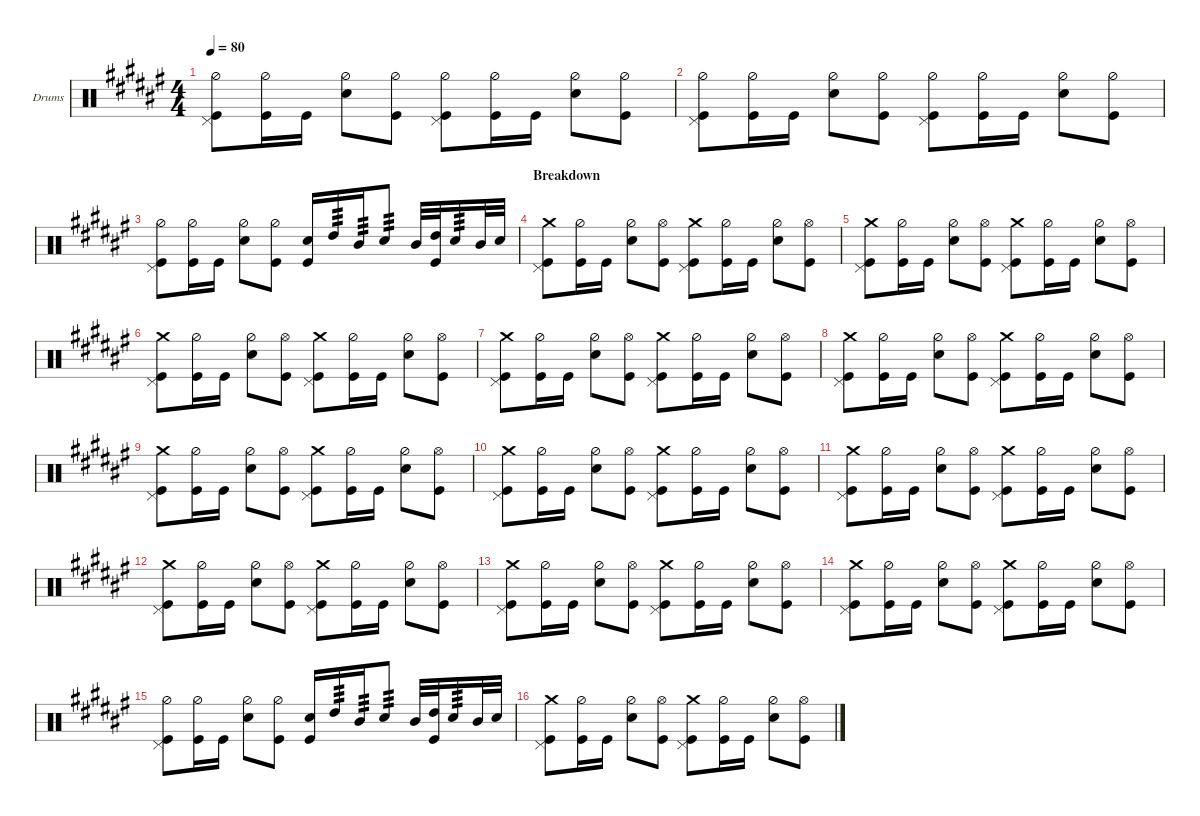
\defaultSystemsLayout 4
\hideDynamics
\bracketExtendMode groupsimilarinstruments
\multiBarRest
\firstSystemTrackNameOrientation horizontal
\otherSystemsTrackNameOrientation horizontal
\track ("Drumkit" "Drums") {multiBarRest instrument percussion}
\staff {score}
\articulation defaults
\ts (4 4)
\tempo 80
\clef neutral
\ks f#
("Kick (hit)" "Pedal Hi-Hat (hit)" "Hi-Hat (half)").8{dy mf} ("Kick (hit)" "Hi-Hat (half)").16 "Kick (hit)".16 ("Snare (hit) 2" "Hi-Hat (half)").8 ("Kick (hit)" "Hi-Hat (half)").8 ("Kick (hit)" "Pedal Hi-Hat (hit)" "Hi-Hat (half)").8 ("Kick (hit)" "Hi-Hat (half)").16 "Kick (hit)".16 ("Snare (hit) 2" "Hi-Hat (half)").8 ("Kick (hit)" "Hi-Hat (half)").8 |
("Kick (hit)" "Pedal Hi-Hat (hit)" "Hi-Hat (half)").8 ("Kick (hit)" "Hi-Hat (half)").16 "Kick (hit)".16 ("Snare (hit) 2" "Hi-Hat (half)").8 ("Kick (hit)" "Hi-Hat (half)").8 ("Kick (hit)" "Pedal Hi-Hat (hit)" "Hi-Hat (half)").8 ("Kick (hit)" "Hi-Hat (half)").16 "Kick (hit)".16 ("Snare (hit) 2" "Hi-Hat (half)").8 ("Kick (hit)" "Hi-Hat (half)").8 |
("Kick (hit)" "Pedal Hi-Hat (hit)" "Hi-Hat (half)").8 ("Kick (hit)" "Hi-Hat (half)").16 "Kick (hit)".16 ("Snare (hit) 2" "Hi-Hat (half)").8 ("Kick (hit)" "Hi-Hat (half)").8 ("Snare (hit) 2" "Kick (hit)").16 "High Tom (hit)".16{tp 3} "Mid Tom (hit)".16{tp 3} "Snare (hit) 2".8{tp 3} "Mid Tom (hit)".32 ("Kick (hit)" "High Tom (hit)").32 "Snare (hit) 2".16{tp 3} "Mid Tom (hit)".32 "Snare (hit) 2".32 |
\section ("" "Breakdown")
("Kick (hit)" "Pedal Hi-Hat (hit)" "Crash medium (hit)").8 ("Kick (hit)" "Hi-Hat (half)").16 "Kick (hit)".16 ("Snare (hit) 2" "Hi-Hat (half)").8 ("Kick (hit)" "Hi-Hat (open)").8 ("Kick (hit)" "Pedal Hi-Hat (hit)" "Crash medium (hit)").8 ("Kick (hit)" "Hi-Hat (half)").16 "Kick (hit)".16 ("Snare (hit) 2" "Hi-Hat (half)").8 ("Kick (hit)" "Hi-Hat (open)").8 |
("Kick (hit)" "Pedal Hi-Hat (hit)" "Crash medium (hit)").8 ("Kick (hit)" "Hi-Hat (half)").16 "Kick (hit)".16 ("Snare (hit) 2" "Hi-Hat (half)").8 ("Kick (hit)" "Hi-Hat (open)").8 ("Kick (hit)" "Pedal Hi-Hat (hit)" "Crash medium (hit)").8 ("Kick (hit)" "Hi-Hat (half)").16 "Kick (hit)".16 ("Snare (hit) 2" "Hi-Hat (half)").8 ("Kick (hit)" "Hi-Hat (open)").8 |
("Kick (hit)" "Pedal Hi-Hat (hit)" "Crash medium (hit)").8 ("Kick (hit)" "Hi-Hat (half)").16 "Kick (hit)".16 ("Snare (hit) 2" "Hi-Hat (half)").8 ("Kick (hit)" "Hi-Hat (open)").8 ("Kick (hit)" "Pedal Hi-Hat (hit)" "Crash medium (hit)").8 ("Kick (hit)" "Hi-Hat (half)").16 "Kick (hit)".16 ("Snare (hit) 2" "Hi-Hat (half)").8 ("Kick (hit)" "Hi-Hat (open)").8 |
("Kick (hit)" "Pedal Hi-Hat (hit)" "Crash medium (hit)").8 ("Kick (hit)" "Hi-Hat (half)").16 "Kick (hit)".16 ("Snare (hit) 2" "Hi-Hat (half)").8 ("Kick (hit)" "Hi-Hat (open)").8 ("Kick (hit)" "Pedal Hi-Hat (hit)" "Crash medium (hit)").8 ("Kick (hit)" "Hi-Hat (half)").16 "Kick (hit)".16 ("Snare (hit) 2" "Hi-Hat (half)").8 ("Kick (hit)" "Hi-Hat (open)").8 |
("Kick (hit)" "Pedal Hi-Hat (hit)" "Crash medium (hit)").8 ("Kick (hit)" "Hi-Hat (half)").16 "Kick (hit)".16 ("Snare (hit) 2" "Hi-Hat (half)").8 ("Kick (hit)" "Hi-Hat (open)").8 ("Kick (hit)" "Pedal Hi-Hat (hit)" "Crash medium (hit)").8 ("Kick (hit)" "Hi-Hat (half)").16 "Kick (hit)".16 ("Snare (hit) 2" "Hi-Hat (half)").8 ("Kick (hit)" "Hi-Hat (open)").8 |
("Kick (hit)" "Pedal Hi-Hat (hit)" "Crash medium (hit)").8 ("Kick (hit)" "Hi-Hat (half)").16 "Kick (hit)".16 ("Snare (hit) 2" "Hi-Hat (half)").8 ("Kick (hit)" "Hi-Hat (open)").8 ("Kick (hit)" "Pedal Hi-Hat (hit)" "Crash medium (hit)").8 ("Kick (hit)" "Hi-Hat (half)").16 "Kick (hit)".16 ("Snare (hit) 2" "Hi-Hat (half)").8 ("Kick (hit)" "Hi-Hat (open)").8 |
("Kick (hit)" "Pedal Hi-Hat (hit)" "Crash medium (hit)").8 ("Kick (hit)" "Hi-Hat (half)").16 "Kick (hit)".16 ("Snare (hit) 2" "Hi-Hat (half)").8 ("Kick (hit)" "Hi-Hat (open)").8 ("Kick (hit)" "Pedal Hi-Hat (hit)" "Crash medium (hit)").8 ("Kick (hit)" "Hi-Hat (half)").16 "Kick (hit)".16 ("Snare (hit) 2" "Hi-Hat (half)").8 ("Kick (hit)" "Hi-Hat (open)").8 |
("Kick (hit)" "Pedal Hi-Hat (hit)" "Crash medium (hit)").8 ("Kick (hit)" "Hi-Hat (half)").16 "Kick (hit)".16 ("Snare (hit) 2" "Hi-Hat (half)").8 ("Kick (hit)" "Hi-Hat (open)").8 ("Kick (hit)" "Pedal Hi-Hat (hit)" "Crash medium (hit)").8 ("Kick (hit)" "Hi-Hat (half)").16 "Kick (hit)".16 ("Snare (hit) 2" "Hi-Hat (half)").8 ("Kick (hit)" "Hi-Hat (open)").8 |
("Kick (hit)" "Pedal Hi-Hat (hit)" "Crash medium (hit)").8 ("Kick (hit)" "Hi-Hat (half)").16 "Kick (hit)".16 ("Snare (hit) 2" "Hi-Hat (half)").8 ("Kick (hit)" "Hi-Hat (open)").8 ("Kick (hit)" "Pedal Hi-Hat (hit)" "Crash medium (hit)").8 ("Kick (hit)" "Hi-Hat (half)").16 "Kick (hit)".16 ("Snare (hit) 2" "Hi-Hat (half)").8 ("Kick (hit)" "Hi-Hat (open)").8 |
("Kick (hit)" "Pedal Hi-Hat (hit)" "Crash medium (hit)").8 ("Kick (hit)" "Hi-Hat (half)").16 "Kick (hit)".16 ("Snare (hit) 2" "Hi-Hat (half)").8 ("Kick (hit)" "Hi-Hat (open)").8 ("Kick (hit)" "Pedal Hi-Hat (hit)" "Crash medium (hit)").8 ("Kick (hit)" "Hi-Hat (half)").16 "Kick (hit)".16 ("Snare (hit) 2" "Hi-Hat (half)").8 ("Kick (hit)" "Hi-Hat (open)").8 |
("Kick (hit)" "Pedal Hi-Hat (hit)" "Crash medium (hit)").8 ("Kick (hit)" "Hi-Hat (half)").16 "Kick (hit)".16 ("Snare (hit) 2" "Hi-Hat (half)").8 ("Kick (hit)" "Hi-Hat (open)").8 ("Kick (hit)" "Pedal Hi-Hat (hit)" "Crash medium (hit)").8 ("Kick (hit)" "Hi-Hat (half)").16 "Kick (hit)".16 ("Snare (hit) 2" "Hi-Hat (half)").8 ("Kick (hit)" "Hi-Hat (open)").8 |
("Kick (hit)" "Pedal Hi-Hat (hit)" "Hi-Hat (half)").8 ("Kick (hit)" "Hi-Hat (half)").16 "Kick (hit)".16 ("Snare (hit) 2" "Hi-Hat (half)").8 ("Kick (hit)" "Hi-Hat (half)").8 ("Snare (hit) 2" "Kick (hit)").16 "High Tom (hit)".16{tp 3} "Mid Tom (hit)".16{tp 3} "Snare (hit) 2".8{tp 3} "Mid Tom (hit)".32 ("Kick (hit)" "High Tom (hit)").32 "Snare (hit) 2".16{tp 3} "Mid Tom (hit)".32 "Snare (hit) 2".32 |
("Kick (hit)" "Pedal Hi-Hat (hit)" "Crash medium (hit)").8 ("Kick (hit)" "Hi-Hat (half)").16 "Kick (hit)".16 ("Snare (hit) 2" "Hi-Hat (half)").8 ("Kick (hit)" "Hi-Hat (open)").8 ("Kick (hit)" "Pedal Hi-Hat (hit)" "Crash medium (hit)").8 ("Kick (hit)" "Hi-Hat (half)").16 "Kick (hit)".16 ("Snare (hit) 2" "Hi-Hat (half)").8 ("Kick (hit)" "Hi-Hat (open)").8
